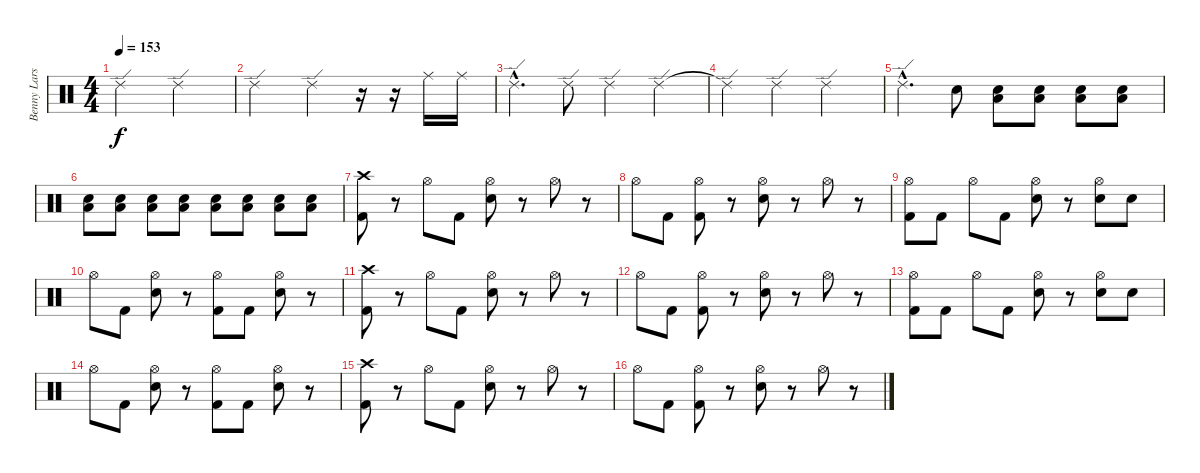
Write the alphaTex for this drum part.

\track ("Benny Larsson" "Benny Lars") {instrument percussion}
\staff {score}
\articulation defaults
\ts (4 4)
\tempo 153
\clef neutral
\ks c "Ride (edge) 2".2{dy f} "Ride (edge) 2".2
|
"Ride (edge) 2".2 "Ride (edge) 2".4 r.16 r.16 "Ride (middle)".16 "Ride (middle)".16 |
"Ride (edge) 2"{hac}.4{d volume 8} "Ride (edge) 2".8 "Ride (edge) 2".4 "Ride (edge) 2".4 |
"Ride (edge) 2"{t}.4 "Ride (edge) 2".4 "Ride (edge) 2".2 |
"Ride (edge) 2"{hac}.4{d} "Electric Snare (hit)".8{volume 7} ("Electric Snare (hit)" "Low Floor Tom (hit)").8{volume 13} ("Electric Snare (hit)" "Low Floor Tom (hit)").8 ("Electric Snare (hit)" "Low Floor Tom (hit)").8 ("Electric Snare (hit)" "Low Floor Tom (hit)").8 |
("Electric Snare (hit)" "Low Floor Tom (hit)").8 ("Electric Snare (hit)" "Low Floor Tom (hit)").8 ("Electric Snare (hit)" "Low Floor Tom (hit)").8 ("Electric Snare (hit)" "Low Floor Tom (hit)").8 ("Electric Snare (hit)" "Low Floor Tom (hit)").8 ("Electric Snare (hit)" "Low Floor Tom (hit)").8 ("Electric Snare (hit)" "Low Floor Tom (hit)").8 ("Electric Snare (hit)" "Low Floor Tom (hit)").8 |
("Crash high (hit)" "Kick (hit) 2").8 r.8 "Hi-Hat (open)".8 "Kick (hit) 2".8 ("Hi-Hat (open)" "Electric Snare (hit)").8 r.8 "Hi-Hat (open)".8 r.8 |
"Hi-Hat (open)".8 "Kick (hit) 2".8 ("Hi-Hat (open)" "Kick (hit) 2").8 r.8 ("Hi-Hat (open)" "Electric Snare (hit)").8 r.8 "Hi-Hat (open)".8 r.8 |
("Hi-Hat (open)" "Kick (hit) 2").8 "Kick (hit) 2".8 "Hi-Hat (open)".8 "Kick (hit) 2".8 ("Hi-Hat (open)" "Electric Snare (hit)").8 r.8 ("Hi-Hat (open)" "Electric Snare (hit)").8 "Electric Snare (hit)".8 |
"Hi-Hat (open)".8 "Kick (hit) 2".8 ("Hi-Hat (open)" "Electric Snare (hit)").8 r.8 ("Hi-Hat (open)" "Kick (hit) 2").8 "Kick (hit) 2".8 ("Hi-Hat (open)" "Electric Snare (hit)").8 r.8 |
("Crash high (hit)" "Kick (hit) 2").8 r.8 "Hi-Hat (open)".8 "Kick (hit) 2".8 ("Hi-Hat (open)" "Electric Snare (hit)").8 r.8 "Hi-Hat (open)".8 r.8 |
"Hi-Hat (open)".8 "Kick (hit) 2".8 ("Hi-Hat (open)" "Kick (hit) 2").8 r.8 ("Hi-Hat (open)" "Electric Snare (hit)").8 r.8 "Hi-Hat (open)".8 r.8 |
("Hi-Hat (open)" "Kick (hit) 2").8 "Kick (hit) 2".8 "Hi-Hat (open)".8 "Kick (hit) 2".8 ("Hi-Hat (open)" "Electric Snare (hit)").8 r.8 ("Hi-Hat (open)" "Electric Snare (hit)").8 "Electric Snare (hit)".8 |
"Hi-Hat (open)".8 "Kick (hit) 2".8 ("Hi-Hat (open)" "Electric Snare (hit)").8 r.8 ("Hi-Hat (open)" "Kick (hit) 2").8 "Kick (hit) 2".8 ("Hi-Hat (open)" "Electric Snare (hit)").8 r.8 |
("Crash high (hit)" "Kick (hit) 2").8 r.8 "Hi-Hat (open)".8 "Kick (hit) 2".8 ("Hi-Hat (open)" "Electric Snare (hit)").8 r.8 "Hi-Hat (open)".8 r.8 |
"Hi-Hat (open)".8 "Kick (hit) 2".8 ("Hi-Hat (open)" "Kick (hit) 2").8 r.8 ("Hi-Hat (open)" "Electric Snare (hit)").8 r.8 "Hi-Hat (open)".8 r.8
